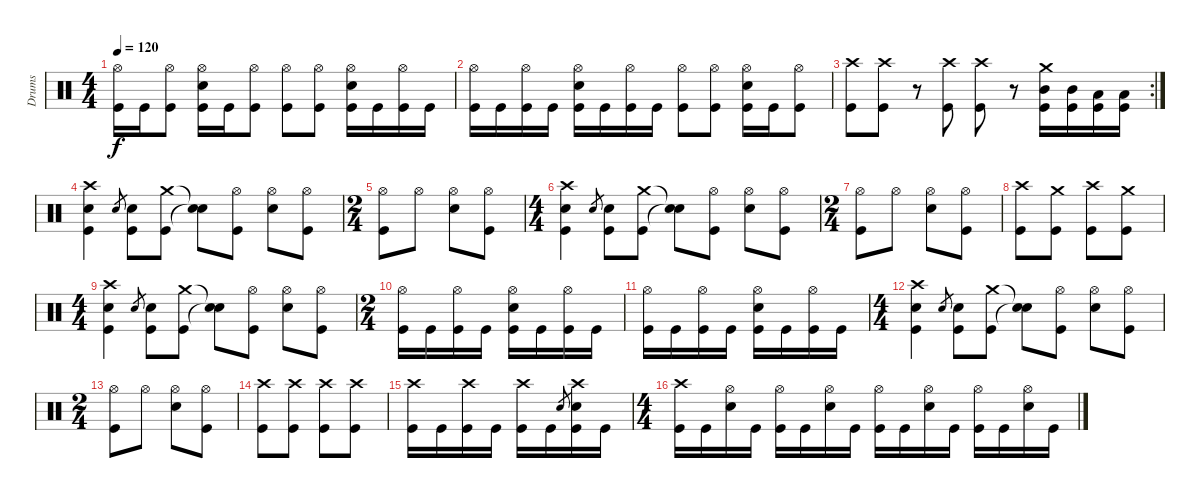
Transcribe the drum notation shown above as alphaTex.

\track ("Drums" "Drums") {instrument percussion}
\staff {score}
\articulation defaults
\ts (4 4)
\tempo 120
\clef neutral
\ks c
("Kick (hit)" "Hi-Hat (open)").16{dy f} "Kick (hit)".16 ("Kick (hit)" "Hi-Hat (open)").8 ("Kick (hit)" "Electric Snare (hit)" "Hi-Hat (open)").16 "Kick (hit)".16 ("Kick (hit)" "Hi-Hat (open)").8 ("Kick (hit)" "Hi-Hat (open)").8 ("Kick (hit)" "Hi-Hat (open)").8 ("Kick (hit)" "Electric Snare (hit)" "Hi-Hat (open)").16 "Kick (hit)".16 ("Kick (hit)" "Hi-Hat (open)").16 "Kick (hit)".16 |
("Kick (hit)" "Hi-Hat (open)").16 "Kick (hit)".16 ("Kick (hit)" "Hi-Hat (open)").16 "Kick (hit)".16 ("Kick (hit)" "Electric Snare (hit)" "Hi-Hat (open)").16 "Kick (hit)".16 ("Kick (hit)" "Hi-Hat (open)").16 "Kick (hit)".16 ("Kick (hit)" "Hi-Hat (open)").8 ("Kick (hit)" "Hi-Hat (open)").8 ("Kick (hit)" "Electric Snare (hit)" "Hi-Hat (open)").16 "Kick (hit)".16 ("Kick (hit)" "Hi-Hat (open)").8 |
\rc 2
("Kick (hit)" "Crash high (hit)").8 ("Kick (hit)" "Crash high (hit)").8 r.8 ("Kick (hit)" "Crash high (hit)").8 ("Kick (hit)" "Crash high (hit)").8 r.8 ("Kick (hit)" "Mid Tom (hit)" "Crash medium (hit)").16 ("Kick (hit)" "Mid Tom (hit)").16 ("Kick (hit)" "Low Tom (hit)").16 ("Kick (hit)" "Low Tom (hit)").16 |
("Kick (hit)" "Electric Snare (hit)" "Crash high (hit)").4 "Electric Snare (hit)".8{gr} ("Kick (hit)" "Electric Snare (hit)").8 ("Kick (hit)" "Crash medium (hit)").8 ("Snare (hit)"{t} "Snare (hit)"{t}).8 ("Kick (hit)" "Hi-Hat (open)").8 ("Electric Snare (hit)" "Hi-Hat (open)").8 ("Kick (hit)" "Hi-Hat (open)").8 |
\ts (2 4)
("Kick (hit)" "Hi-Hat (open)").8 "Hi-Hat (open)".8 ("Electric Snare (hit)" "Hi-Hat (open)").8 ("Kick (hit)" "Hi-Hat (open)").8 |
\ts (4 4)
("Kick (hit)" "Electric Snare (hit)" "Crash high (hit)").4 "Electric Snare (hit)".8{gr} ("Kick (hit)" "Electric Snare (hit)").8 ("Kick (hit)" "Crash medium (hit)").8 ("Snare (hit)"{t} "Snare (hit)"{t}).8 ("Kick (hit)" "Hi-Hat (open)").8 ("Electric Snare (hit)" "Hi-Hat (open)").8 ("Kick (hit)" "Hi-Hat (open)").8 |
\ts (2 4)
("Kick (hit)" "Hi-Hat (open)").8 "Hi-Hat (open)".8 ("Electric Snare (hit)" "Hi-Hat (open)").8 ("Kick (hit)" "Hi-Hat (open)").8 |
("Kick (hit)" "Crash high (hit)").8 ("Kick (hit)" "Crash medium (hit)").8 ("Kick (hit)" "Crash high (hit)").8 ("Kick (hit)" "Crash medium (hit)").8 |
\ts (4 4)
("Kick (hit)" "Electric Snare (hit)" "Crash high (hit)").4 "Electric Snare (hit)".8{gr} ("Kick (hit)" "Electric Snare (hit)").8 ("Kick (hit)" "Crash medium (hit)").8 ("Snare (hit)"{t} "Snare (hit)"{t}).8 ("Kick (hit)" "Hi-Hat (open)").8 ("Electric Snare (hit)" "Hi-Hat (open)").8 ("Kick (hit)" "Hi-Hat (open)").8 |
\ts (2 4)
("Kick (hit)" "Hi-Hat (open)").16 "Kick (hit)".16 ("Kick (hit)" "Hi-Hat (open)").16 "Kick (hit)".16 ("Kick (hit)" "Electric Snare (hit)" "Hi-Hat (open)").16 "Kick (hit)".16 ("Kick (hit)" "Hi-Hat (open)").16 "Kick (hit)".16 |
("Kick (hit)" "Hi-Hat (open)").16 "Kick (hit)".16 ("Kick (hit)" "Hi-Hat (open)").16 "Kick (hit)".16 ("Kick (hit)" "Electric Snare (hit)" "Hi-Hat (open)").16 "Kick (hit)".16 ("Kick (hit)" "Hi-Hat (open)").16 "Kick (hit)".16 |
\ts (4 4)
("Kick (hit)" "Electric Snare (hit)" "Crash high (hit)").4 "Electric Snare (hit)".8{gr} ("Kick (hit)" "Electric Snare (hit)").8 ("Kick (hit)" "Crash medium (hit)").8 ("Snare (hit)"{t} "Snare (hit)"{t}).8 ("Kick (hit)" "Hi-Hat (open)").8 ("Electric Snare (hit)" "Hi-Hat (open)").8 ("Kick (hit)" "Hi-Hat (open)").8 |
\ts (2 4)
("Kick (hit)" "Hi-Hat (open)").8 "Hi-Hat (open)".8 ("Electric Snare (hit)" "Hi-Hat (open)").8 ("Kick (hit)" "Hi-Hat (open)").8 |
("Kick (hit)" "Crash high (hit)").8 ("Kick (hit)" "Crash high (hit)").8 ("Kick (hit)" "Crash high (hit)").8 ("Kick (hit)" "Crash high (hit)").8 |
("Kick (hit)" "Crash high (hit)").16 "Kick (hit)".16 ("Kick (hit)" "Crash high (hit)").16 "Kick (hit)".16 ("Kick (hit)" "Crash high (hit)").16 "Kick (hit)".16 "Electric Snare (hit)".8{gr} ("Kick (hit)" "Electric Snare (hit)" "Crash high (hit)").16 "Kick (hit)".16 |
\ts (4 4)
("Kick (hit)" "Crash high (hit)").16 "Kick (hit)".16 ("Electric Snare (hit)" "Hi-Hat (open)").16 "Kick (hit)".16 ("Kick (hit)" "Hi-Hat (open)").16 "Kick (hit)".16 ("Electric Snare (hit)" "Hi-Hat (open)").16 "Kick (hit)".16 ("Kick (hit)" "Hi-Hat (open)").16 "Kick (hit)".16 ("Electric Snare (hit)" "Hi-Hat (open)").16 "Kick (hit)".16 ("Kick (hit)" "Hi-Hat (open)").16 "Kick (hit)".16 ("Electric Snare (hit)" "Hi-Hat (open)").16 "Kick (hit)".16
